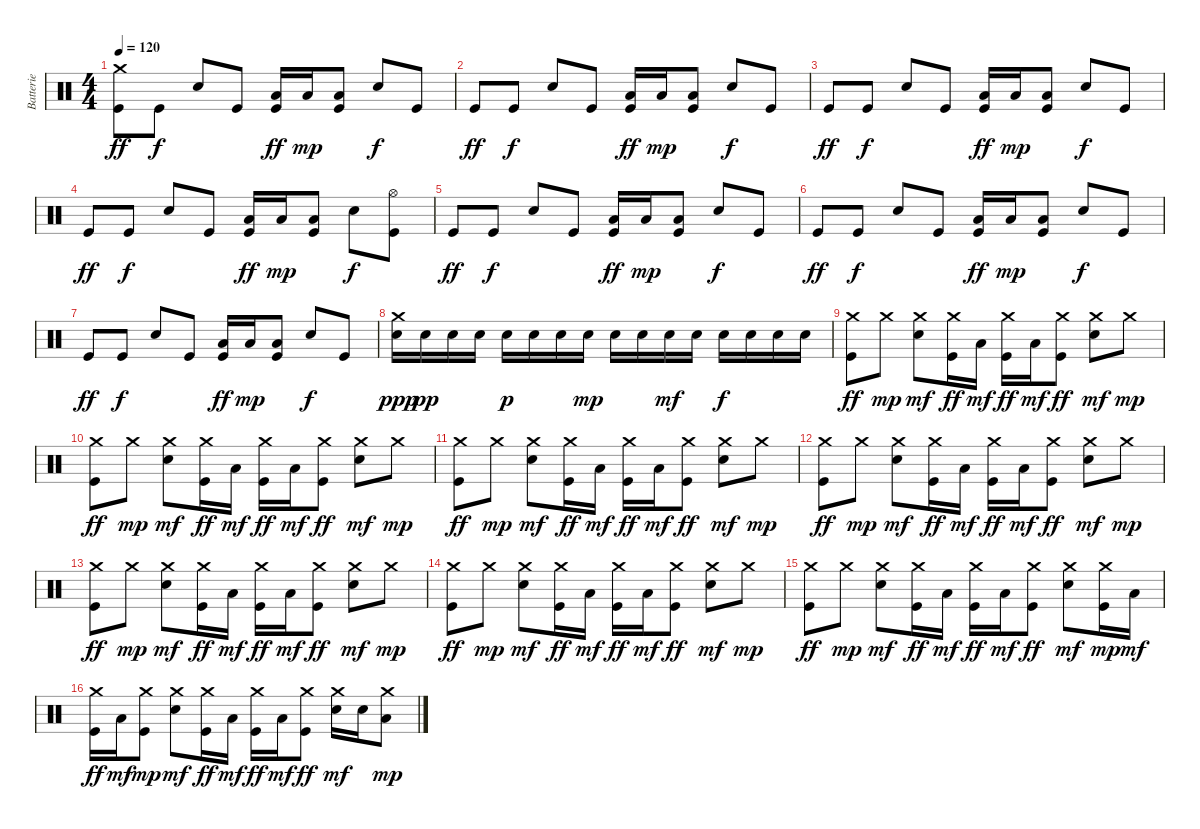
\track ("Batterie" "Batterie") {instrument percussion}
\staff {score}
\articulation defaults
\ts (4 4)
\tempo 120
\clef neutral
\ks c
("Crash medium (hit)" "Kick (hit)").8{dy ff} "Kick (hit)".8{dy f} "Snare (hit) 2".8 "Kick (hit)".8 ("Low Tom (hit)" "Kick (hit)").16{dy ff} "Low Tom (hit)".16{dy mp} ("Low Tom (hit)" "Kick (hit)").8 "Snare (hit) 2".8{dy f} "Kick (hit)".8 |
"Kick (hit)".8{dy ff} "Kick (hit)".8{dy f} "Snare (hit) 2".8 "Kick (hit)".8 ("Low Tom (hit)" "Kick (hit)").16{dy ff} "Low Tom (hit)".16{dy mp} ("Low Tom (hit)" "Kick (hit)").8 "Snare (hit) 2".8{dy f} "Kick (hit)".8 |
"Kick (hit)".8{dy ff} "Kick (hit)".8{dy f} "Snare (hit) 2".8 "Kick (hit)".8 ("Low Tom (hit)" "Kick (hit)").16{dy ff} "Low Tom (hit)".16{dy mp} ("Low Tom (hit)" "Kick (hit)").8 "Snare (hit) 2".8{dy f} "Kick (hit)".8 |
"Kick (hit)".8{dy ff} "Kick (hit)".8{dy f} "Snare (hit) 2".8 "Kick (hit)".8 ("Low Tom (hit)" "Kick (hit)").16{dy ff} "Low Tom (hit)".16{dy mp} ("Low Tom (hit)" "Kick (hit)").8 "Snare (hit) 2".8{dy f} ("Hi-Hat (open)" "Kick (hit)").8 |
"Kick (hit)".8{dy ff} "Kick (hit)".8{dy f} "Snare (hit) 2".8 "Kick (hit)".8 ("Low Tom (hit)" "Kick (hit)").16{dy ff} "Low Tom (hit)".16{dy mp} ("Low Tom (hit)" "Kick (hit)").8 "Snare (hit) 2".8{dy f} "Kick (hit)".8 |
"Kick (hit)".8{dy ff} "Kick (hit)".8{dy f} "Snare (hit) 2".8 "Kick (hit)".8 ("Low Tom (hit)" "Kick (hit)").16{dy ff} "Low Tom (hit)".16{dy mp} ("Low Tom (hit)" "Kick (hit)").8 "Snare (hit) 2".8{dy f} "Kick (hit)".8 |
"Kick (hit)".8{dy ff} "Kick (hit)".8{dy f} "Snare (hit) 2".8 "Kick (hit)".8 ("Low Tom (hit)" "Kick (hit)").16{dy ff} "Low Tom (hit)".16{dy mp} ("Low Tom (hit)" "Kick (hit)").8 "Snare (hit) 2".8{dy f} "Kick (hit)".8 |
("Crash medium (hit)" "Snare (hit) 2").16{dy ppp} "Snare (hit) 2".16{dy pp} "Snare (hit) 2".16 "Snare (hit) 2".16 "Snare (hit) 2".16{dy p} "Snare (hit) 2".16 "Snare (hit) 2".16 "Snare (hit) 2".16{dy mp} "Snare (hit) 2".16 "Snare (hit) 2".16 "Snare (hit) 2".16{dy mf} "Snare (hit) 2".16 "Snare (hit) 2".16{dy f} "Snare (hit) 2".16 "Snare (hit) 2".16 "Snare (hit) 2".16 |
("Crash medium (hit)" "Kick (hit)").8{dy ff} "Crash medium (hit)".8{dy mp} ("Crash medium (hit)" "Snare (hit) 2").8{dy mf} ("Crash medium (hit)" "Kick (hit)").16{dy ff} "Low Tom (hit)".16{dy mf} ("Crash medium (hit)" "Kick (hit)").16{dy ff} "Low Tom (hit)".16{dy mf} ("Crash medium (hit)" "Kick (hit)").8{dy ff} ("Crash medium (hit)" "Snare (hit) 2").8{dy mf} "Crash medium (hit)".8{dy mp} |
("Crash medium (hit)" "Kick (hit)").8{dy ff} "Crash medium (hit)".8{dy mp} ("Crash medium (hit)" "Snare (hit) 2").8{dy mf} ("Crash medium (hit)" "Kick (hit)").16{dy ff} "Low Tom (hit)".16{dy mf} ("Crash medium (hit)" "Kick (hit)").16{dy ff} "Low Tom (hit)".16{dy mf} ("Crash medium (hit)" "Kick (hit)").8{dy ff} ("Crash medium (hit)" "Snare (hit) 2").8{dy mf} "Crash medium (hit)".8{dy mp} |
("Crash medium (hit)" "Kick (hit)").8{dy ff} "Crash medium (hit)".8{dy mp} ("Crash medium (hit)" "Snare (hit) 2").8{dy mf} ("Crash medium (hit)" "Kick (hit)").16{dy ff} "Low Tom (hit)".16{dy mf} ("Crash medium (hit)" "Kick (hit)").16{dy ff} "Low Tom (hit)".16{dy mf} ("Crash medium (hit)" "Kick (hit)").8{dy ff} ("Crash medium (hit)" "Snare (hit) 2").8{dy mf} "Crash medium (hit)".8{dy mp} |
("Crash medium (hit)" "Kick (hit)").8{dy ff} "Crash medium (hit)".8{dy mp} ("Crash medium (hit)" "Snare (hit) 2").8{dy mf} ("Crash medium (hit)" "Kick (hit)").16{dy ff} "Low Tom (hit)".16{dy mf} ("Crash medium (hit)" "Kick (hit)").16{dy ff} "Low Tom (hit)".16{dy mf} ("Crash medium (hit)" "Kick (hit)").8{dy ff} ("Crash medium (hit)" "Snare (hit) 2").8{dy mf} "Crash medium (hit)".8{dy mp} |
("Crash medium (hit)" "Kick (hit)").8{dy ff} "Crash medium (hit)".8{dy mp} ("Crash medium (hit)" "Snare (hit) 2").8{dy mf} ("Crash medium (hit)" "Kick (hit)").16{dy ff} "Low Tom (hit)".16{dy mf} ("Crash medium (hit)" "Kick (hit)").16{dy ff} "Low Tom (hit)".16{dy mf} ("Crash medium (hit)" "Kick (hit)").8{dy ff} ("Crash medium (hit)" "Snare (hit) 2").8{dy mf} "Crash medium (hit)".8{dy mp} |
("Crash medium (hit)" "Kick (hit)").8{dy ff} "Crash medium (hit)".8{dy mp} ("Crash medium (hit)" "Snare (hit) 2").8{dy mf} ("Crash medium (hit)" "Kick (hit)").16{dy ff} "Low Tom (hit)".16{dy mf} ("Crash medium (hit)" "Kick (hit)").16{dy ff} "Low Tom (hit)".16{dy mf} ("Crash medium (hit)" "Kick (hit)").8{dy ff} ("Crash medium (hit)" "Snare (hit) 2").8{dy mf} "Crash medium (hit)".8{dy mp} |
("Crash medium (hit)" "Kick (hit)").8{dy ff} "Crash medium (hit)".8{dy mp} ("Crash medium (hit)" "Snare (hit) 2").8{dy mf} ("Crash medium (hit)" "Kick (hit)").16{dy ff} "Low Tom (hit)".16{dy mf} ("Crash medium (hit)" "Kick (hit)").16{dy ff} "Low Tom (hit)".16{dy mf} ("Crash medium (hit)" "Kick (hit)").8{dy ff} ("Crash medium (hit)" "Snare (hit) 2").8{dy mf} ("Crash medium (hit)" "Kick (hit)").16{dy mp} "Low Tom (hit)".16{dy mf} |
("Crash medium (hit)" "Kick (hit)").16{dy ff} "Low Tom (hit)".16{dy mf} ("Crash medium (hit)" "Kick (hit)").8{dy mp} ("Crash medium (hit)" "Snare (hit) 2").8{dy mf} ("Crash medium (hit)" "Kick (hit)").16{dy ff} "Low Tom (hit)".16{dy mf} ("Crash medium (hit)" "Kick (hit)").16{dy ff} "Low Tom (hit)".16{dy mf} ("Crash medium (hit)" "Kick (hit)").8{dy ff} ("Crash medium (hit)" "Snare (hit) 2").16{dy mf} "Snare (hit) 2".16 ("Crash medium (hit)" "Low Tom (hit)").8{dy mp}
